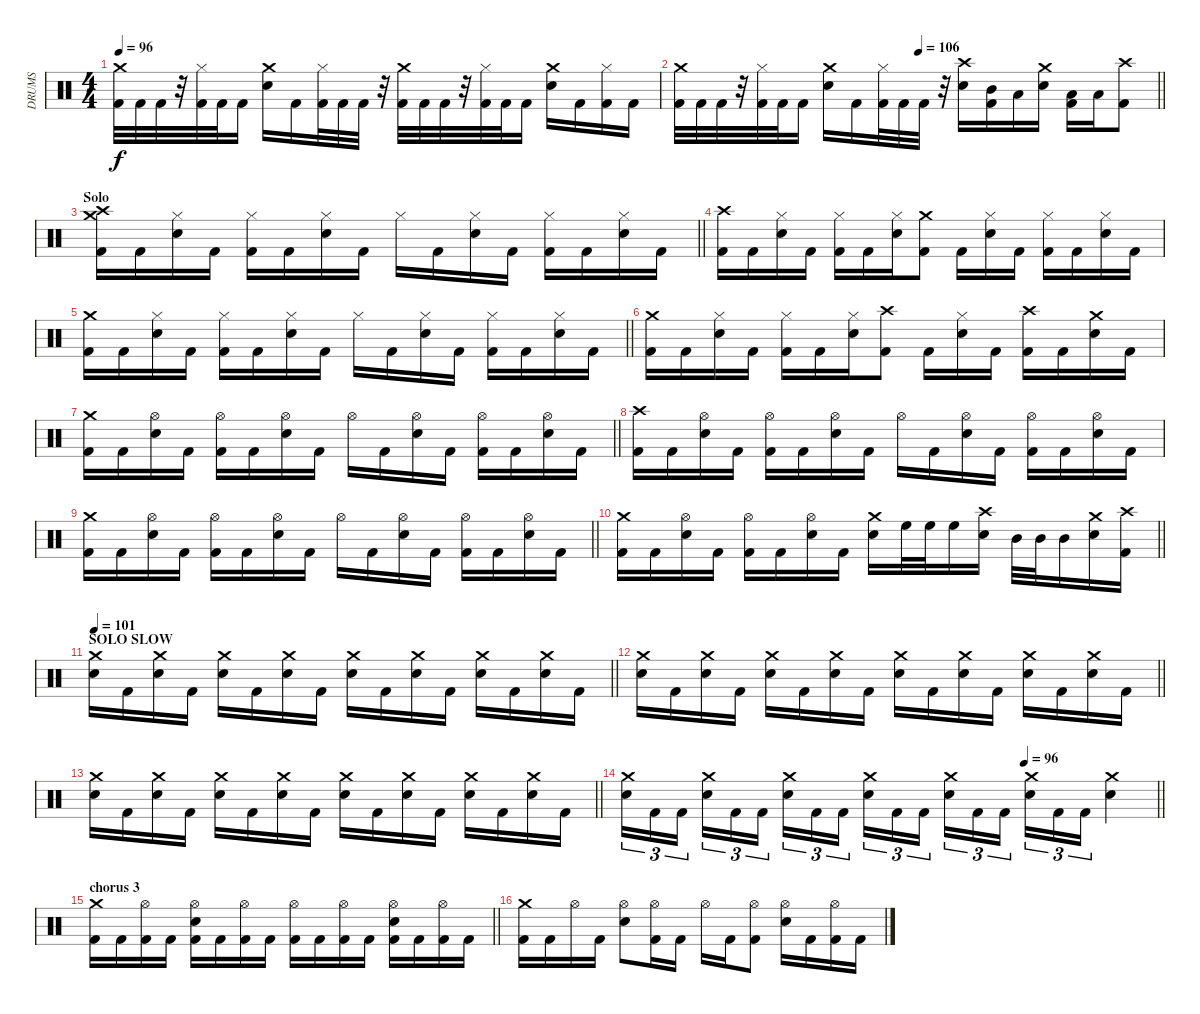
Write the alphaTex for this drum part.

\track ("DRUMS" "DRUMS") {instrument percussion}
\staff {score}
\articulation defaults
\ts (4 4)
\tempo 96
\clef neutral
\ks c
("Kick (hit) 2" "Crash medium (hit)").32{dy f} "Kick (hit) 2".32 "Kick (hit) 2".32 r.32 ("Kick (hit) 2" "Hi-Hat (closed)").32 "Kick (hit) 2".32 "Kick (hit) 2".16 ("Electric Snare (hit)" "Crash medium (hit)").16 "Kick (hit) 2".16 ("Kick (hit) 2" "Hi-Hat (closed)").32 "Kick (hit) 2".32 "Kick (hit) 2".32 r.32 ("Kick (hit) 2" "Crash medium (hit)").32 "Kick (hit) 2".32 "Kick (hit) 2".32 r.32 ("Kick (hit) 2" "Hi-Hat (closed)").32 "Kick (hit) 2".32 "Kick (hit) 2".16 ("Electric Snare (hit)" "Crash medium (hit)").16 "Kick (hit) 2".16 ("Kick (hit) 2" "Hi-Hat (closed)").16 "Kick (hit) 2".16 |
\tempo (106 0.5)
\barLineRight lightlight
("Kick (hit) 2" "Crash medium (hit)").32 "Kick (hit) 2".32 "Kick (hit) 2".32 r.32 ("Kick (hit) 2" "Hi-Hat (closed)").32 "Kick (hit) 2".32 "Kick (hit) 2".16 ("Electric Snare (hit)" "Crash medium (hit)").16 "Kick (hit) 2".16 ("Kick (hit) 2" "Hi-Hat (closed)").32 "Kick (hit) 2".32 "Kick (hit) 2".32 r.32 ("Electric Snare (hit)" "Crash high (hit)").16 ("Kick (hit) 2" "Mid Tom (hit)").16 "Low Tom (hit)".16 ("Electric Snare (hit)" "Crash medium (hit)").16 ("Kick (hit) 2" "Low Tom (hit)").16 "Low Floor Tom (hit)".16 ("Kick (hit) 2" "Crash high (hit)").8 |
\section ("" "Solo")
\barLineRight lightlight
("Kick (hit) 2" "Crash medium (hit)" "Crash high (hit)").16 "Kick (hit) 2".16 ("Electric Snare (hit)" "Hi-Hat (closed)").16 "Kick (hit) 2".16 ("Kick (hit) 2" "Hi-Hat (closed)").16 "Kick (hit) 2".16 ("Electric Snare (hit)" "Hi-Hat (closed)").16 "Kick (hit) 2".16 "Hi-Hat (closed)".16 "Kick (hit) 2".16 ("Electric Snare (hit)" "Hi-Hat (closed)").16 "Kick (hit) 2".16 ("Kick (hit) 2" "Hi-Hat (closed)").16 "Kick (hit) 2".16 ("Electric Snare (hit)" "Hi-Hat (closed)").16 "Kick (hit) 2".16 |
("Kick (hit) 2" "Crash high (hit)").16 "Kick (hit) 2".16 ("Electric Snare (hit)" "Hi-Hat (closed)").16 "Kick (hit) 2".16 ("Kick (hit) 2" "Hi-Hat (closed)").16 "Kick (hit) 2".16 ("Electric Snare (hit)" "Hi-Hat (closed)").16 ("Kick (hit) 2" "Crash medium (hit)").8 "Kick (hit) 2".16 ("Electric Snare (hit)" "Hi-Hat (closed)").16 "Kick (hit) 2".16 ("Kick (hit) 2" "Hi-Hat (closed)").16 "Kick (hit) 2".16 ("Electric Snare (hit)" "Hi-Hat (closed)").16 "Kick (hit) 2".16 |
\barLineRight lightlight
("Kick (hit) 2" "Crash medium (hit)").16 "Kick (hit) 2".16 ("Electric Snare (hit)" "Hi-Hat (closed)").16 "Kick (hit) 2".16 ("Kick (hit) 2" "Hi-Hat (closed)").16 "Kick (hit) 2".16 ("Electric Snare (hit)" "Hi-Hat (closed)").16 "Kick (hit) 2".16 "Hi-Hat (closed)".16 "Kick (hit) 2".16 ("Electric Snare (hit)" "Hi-Hat (closed)").16 "Kick (hit) 2".16 ("Kick (hit) 2" "Hi-Hat (closed)").16 "Kick (hit) 2".16 ("Electric Snare (hit)" "Hi-Hat (closed)").16 "Kick (hit) 2".16 |
("Kick (hit) 2" "Crash medium (hit)").16 "Kick (hit) 2".16 ("Electric Snare (hit)" "Hi-Hat (closed)").16 "Kick (hit) 2".16 ("Kick (hit) 2" "Hi-Hat (closed)").16 "Kick (hit) 2".16 ("Electric Snare (hit)" "Hi-Hat (closed)").16 ("Kick (hit) 2" "Crash high (hit)").8 "Kick (hit) 2".16 ("Electric Snare (hit)" "Hi-Hat (closed)").16 "Kick (hit) 2".16 ("Kick (hit) 2" "Crash high (hit)").16 "Kick (hit) 2".16 ("Electric Snare (hit)" "Crash medium (hit)").16 "Kick (hit) 2".16 |
\barLineRight lightlight
("Kick (hit) 2" "Crash medium (hit)").16 "Kick (hit) 2".16 ("Electric Snare (hit)" "Hi-Hat (open)").16 "Kick (hit) 2".16 ("Kick (hit) 2" "Hi-Hat (open)").16 "Kick (hit) 2".16 ("Electric Snare (hit)" "Hi-Hat (open)").16 "Kick (hit) 2".16 "Hi-Hat (open)".16 "Kick (hit) 2".16 ("Electric Snare (hit)" "Hi-Hat (open)").16 "Kick (hit) 2".16 ("Kick (hit) 2" "Hi-Hat (open)").16 "Kick (hit) 2".16 ("Electric Snare (hit)" "Hi-Hat (open)").16 "Kick (hit) 2".16 |
("Kick (hit) 2" "Crash high (hit)").16 "Kick (hit) 2".16 ("Electric Snare (hit)" "Hi-Hat (open)").16 "Kick (hit) 2".16 ("Kick (hit) 2" "Hi-Hat (open)").16 "Kick (hit) 2".16 ("Electric Snare (hit)" "Hi-Hat (open)").16 "Kick (hit) 2".16 "Hi-Hat (open)".16 "Kick (hit) 2".16 ("Electric Snare (hit)" "Hi-Hat (open)").16 "Kick (hit) 2".16 ("Kick (hit) 2" "Hi-Hat (open)").16 "Kick (hit) 2".16 ("Electric Snare (hit)" "Hi-Hat (open)").16 "Kick (hit) 2".16 |
\barLineRight lightlight
("Kick (hit) 2" "Crash medium (hit)").16 "Kick (hit) 2".16 ("Electric Snare (hit)" "Hi-Hat (open)").16 "Kick (hit) 2".16 ("Kick (hit) 2" "Hi-Hat (open)").16 "Kick (hit) 2".16 ("Electric Snare (hit)" "Hi-Hat (open)").16 "Kick (hit) 2".16 "Hi-Hat (open)".16 "Kick (hit) 2".16 ("Electric Snare (hit)" "Hi-Hat (open)").16 "Kick (hit) 2".16 ("Kick (hit) 2" "Hi-Hat (open)").16 "Kick (hit) 2".16 ("Electric Snare (hit)" "Hi-Hat (open)").16 "Kick (hit) 2".16 |
\barLineRight lightlight
("Kick (hit) 2" "Crash medium (hit)").16 "Kick (hit) 2".16 ("Electric Snare (hit)" "Hi-Hat (open)").16 "Kick (hit) 2".16 ("Kick (hit) 2" "Hi-Hat (open)").16 "Kick (hit) 2".16 ("Electric Snare (hit)" "Hi-Hat (open)").16 "Kick (hit) 2".16 ("Electric Snare (hit)" "Crash medium (hit)").16 "High Floor Tom (hit)".32 "High Floor Tom (hit)".32 "High Floor Tom (hit)".16 ("Electric Snare (hit)" "Crash high (hit)").16 "Mid Tom (hit)".32 "Mid Tom (hit)".32 "Mid Tom (hit)".16 ("Electric Snare (hit)" "Crash medium (hit)").16 ("Kick (hit) 2" "Crash high (hit)").16 |
\section ("" "SOLO SLOW")
\tempo 101
\barLineRight lightlight
("Electric Snare (hit)" "Crash medium (hit)").16 "Kick (hit) 2".16 ("Electric Snare (hit)" "Crash medium (hit)").16 "Kick (hit) 2".16 ("Electric Snare (hit)" "Crash medium (hit)").16 "Kick (hit) 2".16 ("Electric Snare (hit)" "Crash medium (hit)").16 "Kick (hit) 2".16 ("Electric Snare (hit)" "Crash medium (hit)").16 "Kick (hit) 2".16 ("Electric Snare (hit)" "Crash medium (hit)").16 "Kick (hit) 2".16 ("Electric Snare (hit)" "Crash medium (hit)").16 "Kick (hit) 2".16 ("Electric Snare (hit)" "Crash medium (hit)").16 "Kick (hit) 2".16 |
\barLineRight lightlight
("Electric Snare (hit)" "Crash medium (hit)").16 "Kick (hit) 2".16 ("Electric Snare (hit)" "Crash medium (hit)").16 "Kick (hit) 2".16 ("Electric Snare (hit)" "Crash medium (hit)").16 "Kick (hit) 2".16 ("Electric Snare (hit)" "Crash medium (hit)").16 "Kick (hit) 2".16 ("Electric Snare (hit)" "Crash medium (hit)").16 "Kick (hit) 2".16 ("Electric Snare (hit)" "Crash medium (hit)").16 "Kick (hit) 2".16 ("Electric Snare (hit)" "Crash medium (hit)").16 "Kick (hit) 2".16 ("Electric Snare (hit)" "Crash medium (hit)").16 "Kick (hit) 2".16 |
\barLineRight lightlight
("Electric Snare (hit)" "Crash medium (hit)").16 "Kick (hit) 2".16 ("Electric Snare (hit)" "Crash medium (hit)").16 "Kick (hit) 2".16 ("Electric Snare (hit)" "Crash medium (hit)").16 "Kick (hit) 2".16 ("Electric Snare (hit)" "Crash medium (hit)").16 "Kick (hit) 2".16 ("Electric Snare (hit)" "Crash medium (hit)").16 "Kick (hit) 2".16 ("Electric Snare (hit)" "Crash medium (hit)").16 "Kick (hit) 2".16 ("Electric Snare (hit)" "Crash medium (hit)").16 "Kick (hit) 2".16 ("Electric Snare (hit)" "Crash medium (hit)").16 "Kick (hit) 2".16 |
\tempo (96 0.75)
\barLineRight lightlight
("Electric Snare (hit)" "Crash medium (hit)").16{tu (3 2)} "Kick (hit) 2".16{tu (3 2)} "Kick (hit) 2".16{tu (3 2) beam splitsecondary} ("Electric Snare (hit)" "Crash medium (hit)").16{tu (3 2)} "Kick (hit) 2".16{tu (3 2)} "Kick (hit) 2".16{tu (3 2)} ("Electric Snare (hit)" "Crash medium (hit)").16{tu (3 2)} "Kick (hit) 2".16{tu (3 2)} "Kick (hit) 2".16{tu (3 2) beam splitsecondary} ("Electric Snare (hit)" "Crash medium (hit)").16{tu (3 2)} "Kick (hit) 2".16{tu (3 2)} "Kick (hit) 2".16{tu (3 2)} ("Electric Snare (hit)" "Crash medium (hit)").16{tu (3 2)} "Kick (hit) 2".16{tu (3 2)} "Kick (hit) 2".16{tu (3 2) beam splitsecondary} ("Electric Snare (hit)" "Crash medium (hit)").16{tu (3 2)} "Kick (hit) 2".16{tu (3 2)} "Kick (hit) 2".16{tu (3 2)} ("Electric Snare (hit)" "Crash medium (hit)").4 |
\section ("" "chorus 3")
\barLineRight lightlight
("Kick (hit) 2" "Crash medium (hit)").16 "Kick (hit) 2".16 ("Kick (hit) 2" "Hi-Hat (open)").16 "Kick (hit) 2".16 ("Kick (hit) 2" "Electric Snare (hit)" "Hi-Hat (open)").16 "Kick (hit) 2".16 ("Kick (hit) 2" "Hi-Hat (open)").16 "Kick (hit) 2".16 ("Kick (hit) 2" "Hi-Hat (open)").16 "Kick (hit) 2".16 ("Kick (hit) 2" "Hi-Hat (open)").16 "Kick (hit) 2".16 ("Kick (hit) 2" "Electric Snare (hit)" "Hi-Hat (open)").16 "Kick (hit) 2".16 ("Kick (hit) 2" "Hi-Hat (open)").16 "Kick (hit) 2".16 |
("Kick (hit) 2" "Crash medium (hit)").16 "Kick (hit) 2".16 "Hi-Hat (open)".16 "Kick (hit) 2".16 ("Electric Snare (hit)" "Hi-Hat (open)").8 ("Kick (hit) 2" "Hi-Hat (open)").16 "Kick (hit) 2".16 "Hi-Hat (open)".16 "Kick (hit) 2".16 ("Kick (hit) 2" "Hi-Hat (open)").8 ("Electric Snare (hit)" "Hi-Hat (open)").16 "Kick (hit) 2".16 ("Kick (hit) 2" "Hi-Hat (open)").16 "Kick (hit) 2".16
